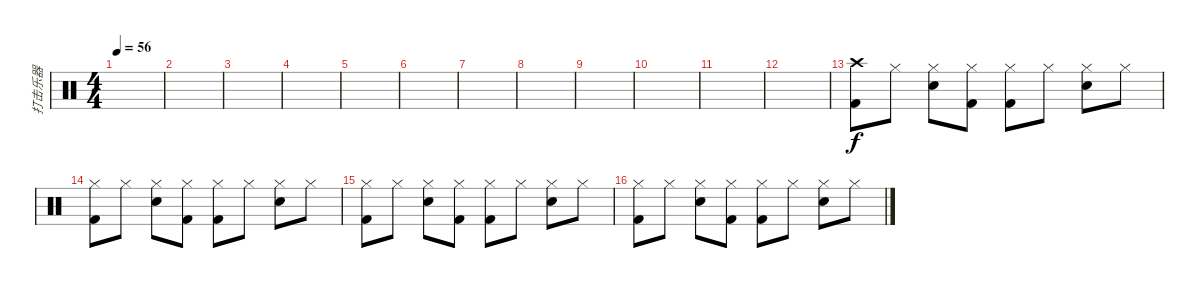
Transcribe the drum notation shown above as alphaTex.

\track ("打击乐器" "打击乐器") {instrument percussion}
\staff {score}
\articulation defaults
\ts (4 4)
\tempo 56
\clef neutral
\ks c
|
|
|
|
|
|
|
|
|
|
|
|
("Crash high (hit)" "Kick (hit) 2").8 "Hi-Hat (closed)".8 ("Hi-Hat (closed)" "Snare (hit) 2").8 ("Hi-Hat (closed)" "Kick (hit) 2").8 ("Hi-Hat (closed)" "Kick (hit) 2").8 "Hi-Hat (closed)".8 ("Hi-Hat (closed)" "Snare (hit) 2").8 "Hi-Hat (closed)".8 |
("Hi-Hat (closed)" "Kick (hit) 2").8 "Hi-Hat (closed)".8 ("Hi-Hat (closed)" "Snare (hit) 2").8 ("Hi-Hat (closed)" "Kick (hit) 2").8 ("Hi-Hat (closed)" "Kick (hit) 2").8 "Hi-Hat (closed)".8 ("Hi-Hat (closed)" "Snare (hit) 2").8 "Hi-Hat (closed)".8 |
("Hi-Hat (closed)" "Kick (hit) 2").8 "Hi-Hat (closed)".8 ("Hi-Hat (closed)" "Snare (hit) 2").8 ("Hi-Hat (closed)" "Kick (hit) 2").8 ("Hi-Hat (closed)" "Kick (hit) 2").8 "Hi-Hat (closed)".8 ("Hi-Hat (closed)" "Snare (hit) 2").8 "Hi-Hat (closed)".8 |
("Hi-Hat (closed)" "Kick (hit) 2").8 "Hi-Hat (closed)".8 ("Hi-Hat (closed)" "Snare (hit) 2").8 ("Hi-Hat (closed)" "Kick (hit) 2").8 ("Hi-Hat (closed)" "Kick (hit) 2").8 "Hi-Hat (closed)".8 ("Hi-Hat (closed)" "Snare (hit) 2").8 "Hi-Hat (closed)".8
